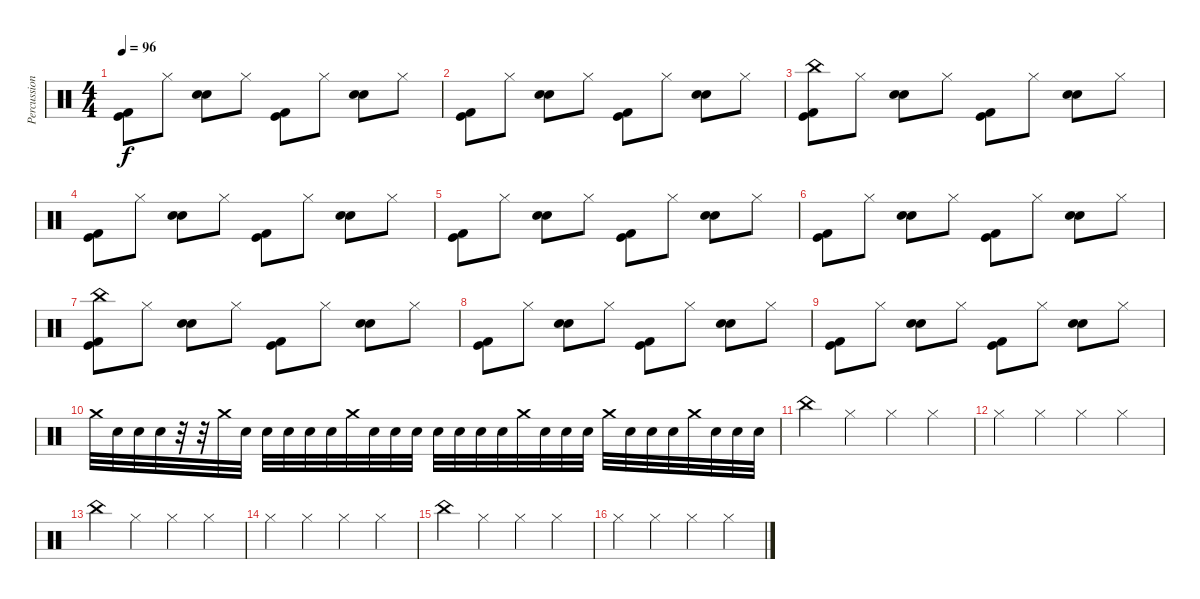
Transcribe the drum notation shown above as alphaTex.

\track ("Percussion" "Percussion") {instrument percussion}
\staff {score}
\articulation defaults
\ts (4 4)
\tempo 96
\clef neutral
\ks c
("Kick (hit) 2" "Kick (hit)").8{dy f} "Hi-Hat (closed)".8 ("Snare (hit) 2" "Electric Snare (hit)").8 "Hi-Hat (closed)".8 ("Kick (hit)" "Kick (hit) 2").8 "Hi-Hat (closed)".8 ("Electric Snare (hit)" "Snare (hit) 2").8 "Hi-Hat (closed)".8 |
("Kick (hit) 2" "Kick (hit)").8 "Hi-Hat (closed)".8 ("Snare (hit) 2" "Electric Snare (hit)").8 "Hi-Hat (closed)".8 ("Kick (hit)" "Kick (hit) 2").8 "Hi-Hat (closed)".8 ("Electric Snare (hit)" "Snare (hit) 2").8 "Hi-Hat (closed)".8 |
("China (hit)" "Kick (hit) 2" "Kick (hit)").8 "Hi-Hat (closed)".8 ("Snare (hit) 2" "Electric Snare (hit)").8 "Hi-Hat (closed)".8 ("Kick (hit)" "Kick (hit) 2").8 "Hi-Hat (closed)".8 ("Electric Snare (hit)" "Snare (hit) 2").8 "Hi-Hat (closed)".8 |
("Kick (hit) 2" "Kick (hit)").8 "Hi-Hat (closed)".8 ("Snare (hit) 2" "Electric Snare (hit)").8 "Hi-Hat (closed)".8 ("Kick (hit)" "Kick (hit) 2").8 "Hi-Hat (closed)".8 ("Electric Snare (hit)" "Snare (hit) 2").8 "Hi-Hat (closed)".8 |
("Kick (hit) 2" "Kick (hit)").8 "Hi-Hat (closed)".8 ("Snare (hit) 2" "Electric Snare (hit)").8 "Hi-Hat (closed)".8 ("Kick (hit)" "Kick (hit) 2").8 "Hi-Hat (closed)".8 ("Electric Snare (hit)" "Snare (hit) 2").8 "Hi-Hat (closed)".8 |
("Kick (hit) 2" "Kick (hit)").8 "Hi-Hat (closed)".8 ("Snare (hit) 2" "Electric Snare (hit)").8 "Hi-Hat (closed)".8 ("Kick (hit)" "Kick (hit) 2").8 "Hi-Hat (closed)".8 ("Electric Snare (hit)" "Snare (hit) 2").8 "Hi-Hat (closed)".8 |
("China (hit)" "Kick (hit) 2" "Kick (hit)").8 "Hi-Hat (closed)".8 ("Snare (hit) 2" "Electric Snare (hit)").8 "Hi-Hat (closed)".8 ("Kick (hit)" "Kick (hit) 2").8 "Hi-Hat (closed)".8 ("Electric Snare (hit)" "Snare (hit) 2").8 "Hi-Hat (closed)".8 |
("Kick (hit) 2" "Kick (hit)").8 "Hi-Hat (closed)".8 ("Snare (hit) 2" "Electric Snare (hit)").8 "Hi-Hat (closed)".8 ("Kick (hit)" "Kick (hit) 2").8 "Hi-Hat (closed)".8 ("Electric Snare (hit)" "Snare (hit) 2").8 "Hi-Hat (closed)".8 |
("Kick (hit) 2" "Kick (hit)").8 "Hi-Hat (closed)".8 ("Snare (hit) 2" "Electric Snare (hit)").8 "Hi-Hat (closed)".8 ("Kick (hit)" "Kick (hit) 2").8 "Hi-Hat (closed)".8 ("Electric Snare (hit)" "Snare (hit) 2").8 "Hi-Hat (closed)".8 |
"Crash medium (hit)".32 "Snare (hit)".32 "Snare (hit)".32 "Snare (hit)".32 r.32 r.32 "Crash medium (hit)".32 "Snare (hit)".32 "Snare (hit)".32 "Snare (hit)".32 "Snare (hit)".32 "Snare (hit)".32 "Crash medium (hit)".32 "Snare (hit)".32 "Snare (hit)".32 "Snare (hit)".32 "Snare (hit)".32 "Snare (hit)".32 "Snare (hit)".32 "Snare (hit)".32 "Crash medium (hit)".32 "Snare (hit)".32 "Snare (hit)".32 "Snare (hit)".32 "Crash medium (hit)".32 "Snare (hit)".32 "Snare (hit)".32 "Snare (hit)".32 "Crash medium (hit)".32 "Snare (hit)".32 "Snare (hit)".32 "Snare (hit)".32 |
"China (hit)".4 "Hi-Hat (closed)".4 "Hi-Hat (closed)".4 "Hi-Hat (closed)".4 |
"Hi-Hat (closed)".4 "Hi-Hat (closed)".4 "Hi-Hat (closed)".4 "Hi-Hat (closed)".4 |
"China (hit)".4 "Hi-Hat (closed)".4 "Hi-Hat (closed)".4 "Hi-Hat (closed)".4 |
"Hi-Hat (closed)".4 "Hi-Hat (closed)".4 "Hi-Hat (closed)".4 "Hi-Hat (closed)".4 |
"China (hit)".4 "Hi-Hat (closed)".4 "Hi-Hat (closed)".4 "Hi-Hat (closed)".4 |
"Hi-Hat (closed)".4 "Hi-Hat (closed)".4 "Hi-Hat (closed)".4 "Hi-Hat (closed)".4
